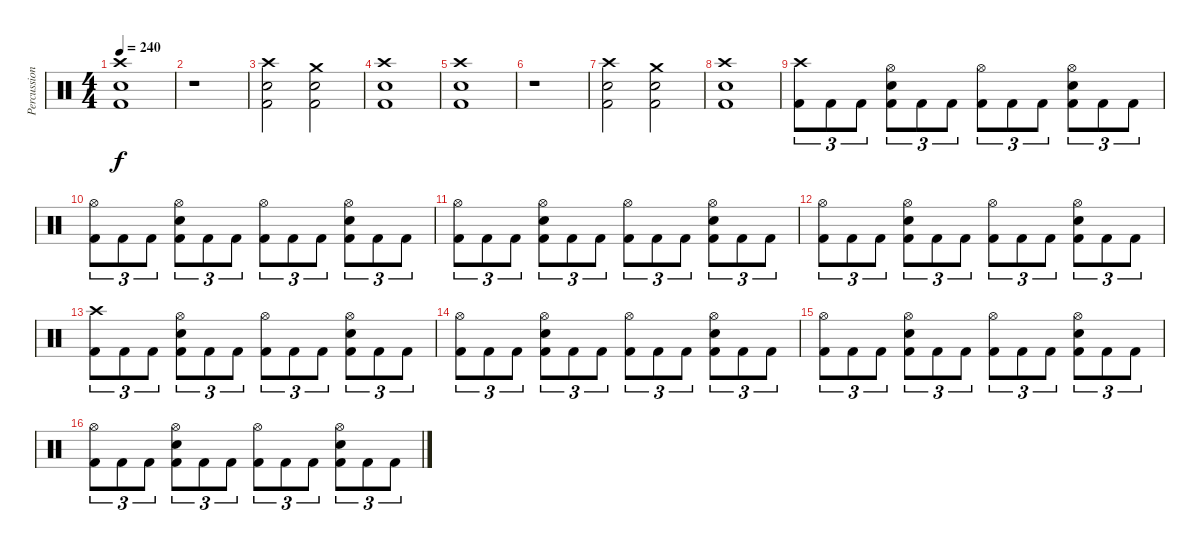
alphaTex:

\track ("Percussion" "Percussion") {instrument percussion}
\staff {score}
\articulation defaults
\ts (4 4)
\tempo 240
\clef neutral
\ks c
("Kick (hit) 2" "Electric Snare (hit)" "Crash high (hit)").1{dy f} |
r.1 |
("Kick (hit) 2" "Electric Snare (hit)" "Crash high (hit)").2 ("Kick (hit) 2" "Electric Snare (hit)" "Crash medium (hit)").2 |
("Kick (hit) 2" "Electric Snare (hit)" "Crash high (hit)").1 |
("Kick (hit) 2" "Electric Snare (hit)" "Crash high (hit)").1 |
r.1 |
("Kick (hit) 2" "Electric Snare (hit)" "Crash high (hit)").2 ("Kick (hit) 2" "Electric Snare (hit)" "Crash medium (hit)").2 |
("Kick (hit) 2" "Electric Snare (hit)" "Crash high (hit)").1 |
("Kick (hit) 2" "Crash high (hit)").8{tu (3 2)} "Kick (hit) 2".8{tu (3 2)} "Kick (hit) 2".8{tu (3 2)} ("Kick (hit) 2" "Hi-Hat (open)" "Electric Snare (hit)").8{tu (3 2)} "Kick (hit) 2".8{tu (3 2)} "Kick (hit) 2".8{tu (3 2)} ("Kick (hit) 2" "Hi-Hat (open)").8{tu (3 2)} "Kick (hit) 2".8{tu (3 2)} "Kick (hit) 2".8{tu (3 2)} ("Kick (hit) 2" "Hi-Hat (open)" "Electric Snare (hit)").8{tu (3 2)} "Kick (hit) 2".8{tu (3 2)} "Kick (hit) 2".8{tu (3 2)} |
("Kick (hit) 2" "Hi-Hat (open)").8{tu (3 2)} "Kick (hit) 2".8{tu (3 2)} "Kick (hit) 2".8{tu (3 2)} ("Kick (hit) 2" "Hi-Hat (open)" "Electric Snare (hit)").8{tu (3 2)} "Kick (hit) 2".8{tu (3 2)} "Kick (hit) 2".8{tu (3 2)} ("Kick (hit) 2" "Hi-Hat (open)").8{tu (3 2)} "Kick (hit) 2".8{tu (3 2)} "Kick (hit) 2".8{tu (3 2)} ("Kick (hit) 2" "Hi-Hat (open)" "Electric Snare (hit)").8{tu (3 2)} "Kick (hit) 2".8{tu (3 2)} "Kick (hit) 2".8{tu (3 2)} |
("Kick (hit) 2" "Hi-Hat (open)").8{tu (3 2)} "Kick (hit) 2".8{tu (3 2)} "Kick (hit) 2".8{tu (3 2)} ("Kick (hit) 2" "Hi-Hat (open)" "Electric Snare (hit)").8{tu (3 2)} "Kick (hit) 2".8{tu (3 2)} "Kick (hit) 2".8{tu (3 2)} ("Kick (hit) 2" "Hi-Hat (open)").8{tu (3 2)} "Kick (hit) 2".8{tu (3 2)} "Kick (hit) 2".8{tu (3 2)} ("Kick (hit) 2" "Hi-Hat (open)" "Electric Snare (hit)").8{tu (3 2)} "Kick (hit) 2".8{tu (3 2)} "Kick (hit) 2".8{tu (3 2)} |
("Kick (hit) 2" "Hi-Hat (open)").8{tu (3 2)} "Kick (hit) 2".8{tu (3 2)} "Kick (hit) 2".8{tu (3 2)} ("Kick (hit) 2" "Hi-Hat (open)" "Electric Snare (hit)").8{tu (3 2)} "Kick (hit) 2".8{tu (3 2)} "Kick (hit) 2".8{tu (3 2)} ("Kick (hit) 2" "Hi-Hat (open)").8{tu (3 2)} "Kick (hit) 2".8{tu (3 2)} "Kick (hit) 2".8{tu (3 2)} ("Kick (hit) 2" "Hi-Hat (open)" "Electric Snare (hit)").8{tu (3 2)} "Kick (hit) 2".8{tu (3 2)} "Kick (hit) 2".8{tu (3 2)} |
("Kick (hit) 2" "Crash high (hit)").8{tu (3 2)} "Kick (hit) 2".8{tu (3 2)} "Kick (hit) 2".8{tu (3 2)} ("Kick (hit) 2" "Hi-Hat (open)" "Electric Snare (hit)").8{tu (3 2)} "Kick (hit) 2".8{tu (3 2)} "Kick (hit) 2".8{tu (3 2)} ("Kick (hit) 2" "Hi-Hat (open)").8{tu (3 2)} "Kick (hit) 2".8{tu (3 2)} "Kick (hit) 2".8{tu (3 2)} ("Kick (hit) 2" "Hi-Hat (open)" "Electric Snare (hit)").8{tu (3 2)} "Kick (hit) 2".8{tu (3 2)} "Kick (hit) 2".8{tu (3 2)} |
("Kick (hit) 2" "Hi-Hat (open)").8{tu (3 2)} "Kick (hit) 2".8{tu (3 2)} "Kick (hit) 2".8{tu (3 2)} ("Kick (hit) 2" "Hi-Hat (open)" "Electric Snare (hit)").8{tu (3 2)} "Kick (hit) 2".8{tu (3 2)} "Kick (hit) 2".8{tu (3 2)} ("Kick (hit) 2" "Hi-Hat (open)").8{tu (3 2)} "Kick (hit) 2".8{tu (3 2)} "Kick (hit) 2".8{tu (3 2)} ("Kick (hit) 2" "Hi-Hat (open)" "Electric Snare (hit)").8{tu (3 2)} "Kick (hit) 2".8{tu (3 2)} "Kick (hit) 2".8{tu (3 2)} |
("Kick (hit) 2" "Hi-Hat (open)").8{tu (3 2)} "Kick (hit) 2".8{tu (3 2)} "Kick (hit) 2".8{tu (3 2)} ("Kick (hit) 2" "Hi-Hat (open)" "Electric Snare (hit)").8{tu (3 2)} "Kick (hit) 2".8{tu (3 2)} "Kick (hit) 2".8{tu (3 2)} ("Kick (hit) 2" "Hi-Hat (open)").8{tu (3 2)} "Kick (hit) 2".8{tu (3 2)} "Kick (hit) 2".8{tu (3 2)} ("Kick (hit) 2" "Hi-Hat (open)" "Electric Snare (hit)").8{tu (3 2)} "Kick (hit) 2".8{tu (3 2)} "Kick (hit) 2".8{tu (3 2)} |
("Kick (hit) 2" "Hi-Hat (open)").8{tu (3 2)} "Kick (hit) 2".8{tu (3 2)} "Kick (hit) 2".8{tu (3 2)} ("Kick (hit) 2" "Hi-Hat (open)" "Electric Snare (hit)").8{tu (3 2)} "Kick (hit) 2".8{tu (3 2)} "Kick (hit) 2".8{tu (3 2)} ("Kick (hit) 2" "Hi-Hat (open)").8{tu (3 2)} "Kick (hit) 2".8{tu (3 2)} "Kick (hit) 2".8{tu (3 2)} ("Kick (hit) 2" "Hi-Hat (open)" "Electric Snare (hit)").8{tu (3 2)} "Kick (hit) 2".8{tu (3 2)} "Kick (hit) 2".8{tu (3 2)}
